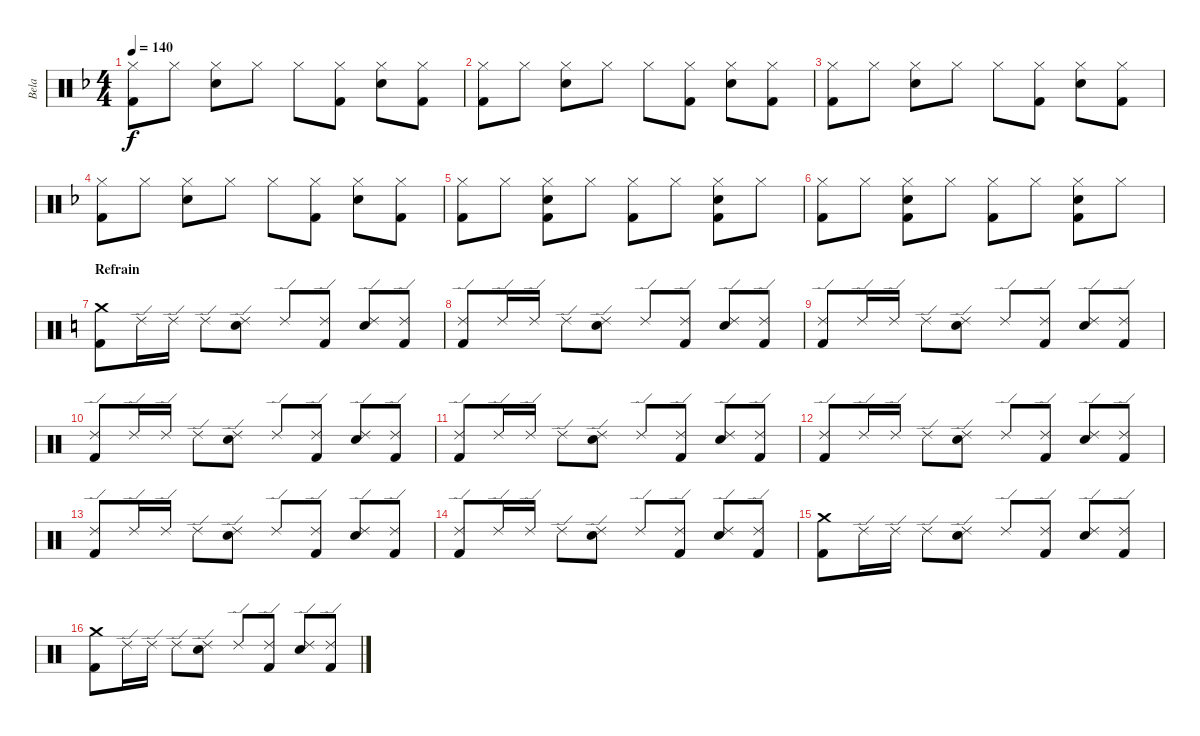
\track ("Bela" "Bela") {instrument percussion}
\staff {score}
\articulation defaults
\ts (4 4)
\tempo 140
\clef neutral
\ks f
("Hi-Hat (closed)" "Kick (hit) 2").8{dy f} "Hi-Hat (closed)".8 ("Hi-Hat (closed)" "Snare (hit) 2").8 "Hi-Hat (closed)".8 "Hi-Hat (closed)".8 ("Hi-Hat (closed)" "Kick (hit) 2").8 ("Hi-Hat (closed)" "Snare (hit) 2").8 ("Hi-Hat (closed)" "Kick (hit) 2").8 |
("Hi-Hat (closed)" "Kick (hit) 2").8 "Hi-Hat (closed)".8 ("Hi-Hat (closed)" "Snare (hit) 2").8 "Hi-Hat (closed)".8 "Hi-Hat (closed)".8 ("Hi-Hat (closed)" "Kick (hit) 2").8 ("Hi-Hat (closed)" "Snare (hit) 2").8 ("Hi-Hat (closed)" "Kick (hit) 2").8 |
("Hi-Hat (closed)" "Kick (hit) 2").8 "Hi-Hat (closed)".8 ("Hi-Hat (closed)" "Snare (hit) 2").8 "Hi-Hat (closed)".8 "Hi-Hat (closed)".8 ("Hi-Hat (closed)" "Kick (hit) 2").8 ("Hi-Hat (closed)" "Snare (hit) 2").8 ("Hi-Hat (closed)" "Kick (hit) 2").8 |
("Hi-Hat (closed)" "Kick (hit) 2").8 "Hi-Hat (closed)".8 ("Hi-Hat (closed)" "Snare (hit) 2").8 "Hi-Hat (closed)".8 "Hi-Hat (closed)".8 ("Hi-Hat (closed)" "Kick (hit) 2").8 ("Hi-Hat (closed)" "Snare (hit) 2").8 ("Hi-Hat (closed)" "Kick (hit) 2").8 |
("Hi-Hat (closed)" "Kick (hit) 2").8 "Hi-Hat (closed)".8 ("Hi-Hat (closed)" "Snare (hit) 2" "Kick (hit) 2").8 "Hi-Hat (closed)".8 ("Hi-Hat (closed)" "Kick (hit) 2").8 "Hi-Hat (closed)".8 ("Hi-Hat (closed)" "Snare (hit) 2" "Kick (hit) 2").8 "Hi-Hat (closed)".8 |
("Hi-Hat (closed)" "Kick (hit) 2").8 "Hi-Hat (closed)".8 ("Hi-Hat (closed)" "Snare (hit) 2" "Kick (hit) 2").8 "Hi-Hat (closed)".8 ("Hi-Hat (closed)" "Kick (hit) 2").8 "Hi-Hat (closed)".8 ("Hi-Hat (closed)" "Snare (hit) 2" "Kick (hit) 2").8 "Hi-Hat (closed)".8 |
\section ("" "Refrain")
\ks c
("Crash medium (hit)" "Kick (hit) 2").8 "Ride (edge) 2".16 "Ride (edge) 2".16 "Ride (edge) 2".8 ("Ride (edge) 2" "Snare (hit) 2").8 "Ride (edge) 2".8 ("Ride (edge) 2" "Kick (hit) 2").8 ("Ride (edge) 2" "Snare (hit) 2").8 ("Ride (edge) 2" "Kick (hit) 2").8 |
("Ride (edge) 2" "Kick (hit) 2").8 "Ride (edge) 2".16 "Ride (edge) 2".16 "Ride (edge) 2".8 ("Ride (edge) 2" "Snare (hit) 2").8 "Ride (edge) 2".8 ("Ride (edge) 2" "Kick (hit) 2").8 ("Ride (edge) 2" "Snare (hit) 2").8 ("Ride (edge) 2" "Kick (hit) 2").8 |
("Ride (edge) 2" "Kick (hit) 2").8 "Ride (edge) 2".16 "Ride (edge) 2".16 "Ride (edge) 2".8 ("Ride (edge) 2" "Snare (hit) 2").8 "Ride (edge) 2".8 ("Ride (edge) 2" "Kick (hit) 2").8 ("Ride (edge) 2" "Snare (hit) 2").8 ("Ride (edge) 2" "Kick (hit) 2").8 |
("Ride (edge) 2" "Kick (hit) 2").8 "Ride (edge) 2".16 "Ride (edge) 2".16 "Ride (edge) 2".8 ("Ride (edge) 2" "Snare (hit) 2").8 "Ride (edge) 2".8 ("Ride (edge) 2" "Kick (hit) 2").8 ("Ride (edge) 2" "Snare (hit) 2").8 ("Ride (edge) 2" "Kick (hit) 2").8 |
("Ride (edge) 2" "Kick (hit) 2").8 "Ride (edge) 2".16 "Ride (edge) 2".16 "Ride (edge) 2".8 ("Ride (edge) 2" "Snare (hit) 2").8 "Ride (edge) 2".8 ("Ride (edge) 2" "Kick (hit) 2").8 ("Ride (edge) 2" "Snare (hit) 2").8 ("Ride (edge) 2" "Kick (hit) 2").8 |
("Ride (edge) 2" "Kick (hit) 2").8 "Ride (edge) 2".16 "Ride (edge) 2".16 "Ride (edge) 2".8 ("Ride (edge) 2" "Snare (hit) 2").8 "Ride (edge) 2".8 ("Ride (edge) 2" "Kick (hit) 2").8 ("Ride (edge) 2" "Snare (hit) 2").8 ("Ride (edge) 2" "Kick (hit) 2").8 |
("Ride (edge) 2" "Kick (hit) 2").8 "Ride (edge) 2".16 "Ride (edge) 2".16 "Ride (edge) 2".8 ("Ride (edge) 2" "Snare (hit) 2").8 "Ride (edge) 2".8 ("Ride (edge) 2" "Kick (hit) 2").8 ("Ride (edge) 2" "Snare (hit) 2").8 ("Ride (edge) 2" "Kick (hit) 2").8 |
("Ride (edge) 2" "Kick (hit) 2").8 "Ride (edge) 2".16 "Ride (edge) 2".16 "Ride (edge) 2".8 ("Ride (edge) 2" "Snare (hit) 2").8 "Ride (edge) 2".8 ("Ride (edge) 2" "Kick (hit) 2").8 ("Ride (edge) 2" "Snare (hit) 2").8 ("Ride (edge) 2" "Kick (hit) 2").8 |
("Crash medium (hit)" "Kick (hit) 2").8 "Ride (edge) 2".16 "Ride (edge) 2".16 "Ride (edge) 2".8 ("Ride (edge) 2" "Snare (hit) 2").8 "Ride (edge) 2".8 ("Ride (edge) 2" "Kick (hit) 2").8 ("Ride (edge) 2" "Snare (hit) 2").8 ("Ride (edge) 2" "Kick (hit) 2").8 |
("Crash medium (hit)" "Kick (hit) 2").8 "Ride (edge) 2".16 "Ride (edge) 2".16 "Ride (edge) 2".8 ("Ride (edge) 2" "Snare (hit) 2").8 "Ride (edge) 2".8 ("Ride (edge) 2" "Kick (hit) 2").8 ("Ride (edge) 2" "Snare (hit) 2").8 ("Ride (edge) 2" "Kick (hit) 2").8
